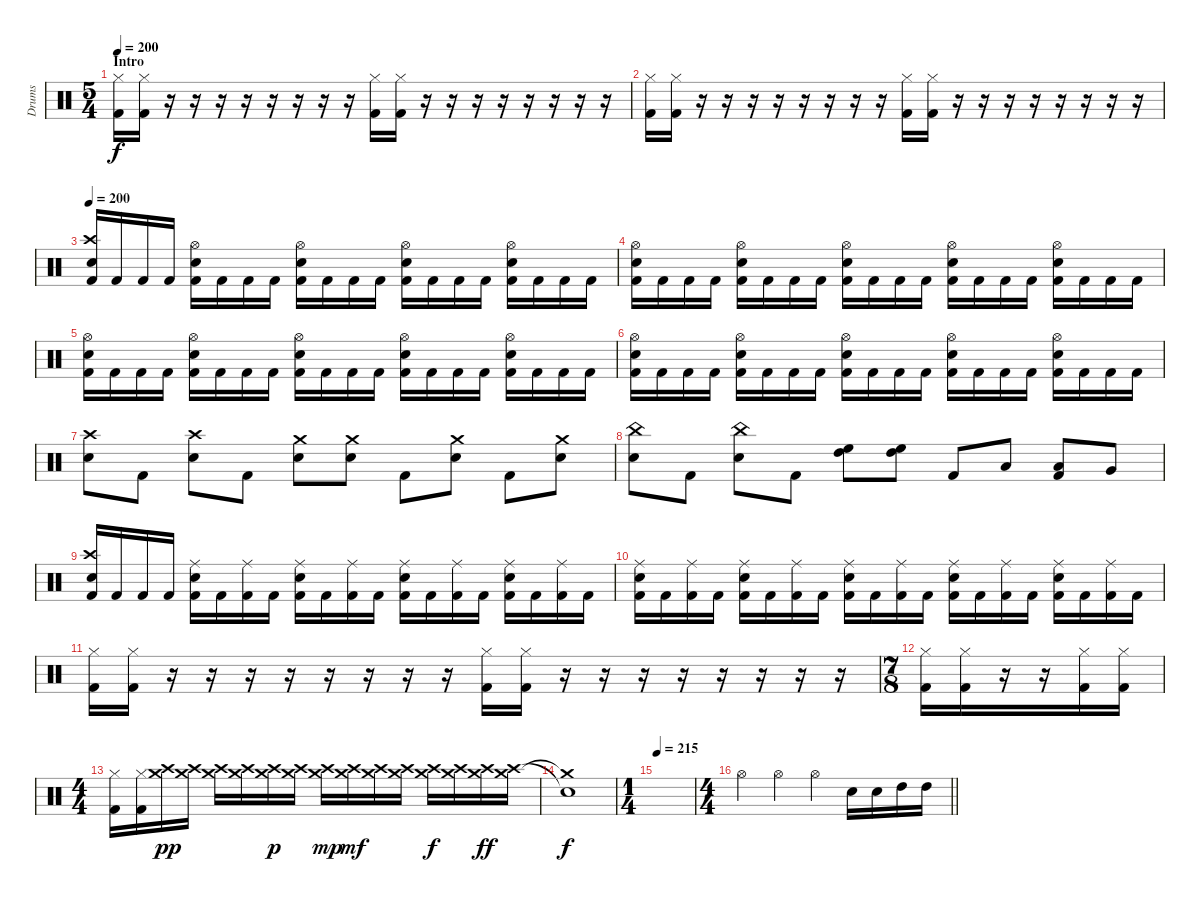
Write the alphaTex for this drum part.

\track ("Drums" "Drums") {instrument percussion}
\staff {score}
\articulation defaults
\ts (5 4)
\section ("" "Intro")
\tempo 200
\clef neutral
\ks c
("Hi-Hat (closed)" "Kick (hit) 2").16{dy f} ("Hi-Hat (closed)" "Kick (hit) 2").16 r.16 r.16 r.16 r.16 r.16 r.16 r.16 r.16 ("Hi-Hat (closed)" "Kick (hit) 2").16 ("Hi-Hat (closed)" "Kick (hit) 2").16 r.16 r.16 r.16 r.16 r.16 r.16 r.16 r.16 |
("Hi-Hat (closed)" "Kick (hit) 2").16 ("Hi-Hat (closed)" "Kick (hit) 2").16 r.16 r.16 r.16 r.16 r.16 r.16 r.16 r.16 ("Hi-Hat (closed)" "Kick (hit) 2").16 ("Hi-Hat (closed)" "Kick (hit) 2").16 r.16 r.16 r.16 r.16 r.16 r.16 r.16 r.16 |
\tempo 200
("Crash high (hit)" "Snare (hit) 2" "Kick (hit) 2").16 "Kick (hit) 2".16 "Kick (hit) 2".16 "Kick (hit) 2".16 ("Hi-Hat (open)" "Snare (hit) 2" "Kick (hit) 2").16 "Kick (hit) 2".16 "Kick (hit) 2".16 "Kick (hit) 2".16 ("Hi-Hat (open)" "Snare (hit) 2" "Kick (hit) 2").16 "Kick (hit) 2".16 "Kick (hit) 2".16 "Kick (hit) 2".16 ("Hi-Hat (open)" "Snare (hit) 2" "Kick (hit) 2").16 "Kick (hit) 2".16 "Kick (hit) 2".16 "Kick (hit) 2".16 ("Hi-Hat (open)" "Snare (hit) 2" "Kick (hit) 2").16 "Kick (hit) 2".16 "Kick (hit) 2".16 "Kick (hit) 2".16 |
("Hi-Hat (open)" "Snare (hit) 2" "Kick (hit) 2").16 "Kick (hit) 2".16 "Kick (hit) 2".16 "Kick (hit) 2".16 ("Hi-Hat (open)" "Snare (hit) 2" "Kick (hit) 2").16 "Kick (hit) 2".16 "Kick (hit) 2".16 "Kick (hit) 2".16 ("Hi-Hat (open)" "Snare (hit) 2" "Kick (hit) 2").16 "Kick (hit) 2".16 "Kick (hit) 2".16 "Kick (hit) 2".16 ("Hi-Hat (open)" "Snare (hit) 2" "Kick (hit) 2").16 "Kick (hit) 2".16 "Kick (hit) 2".16 "Kick (hit) 2".16 ("Hi-Hat (open)" "Snare (hit) 2" "Kick (hit) 2").16 "Kick (hit) 2".16 "Kick (hit) 2".16 "Kick (hit) 2".16 |
("Hi-Hat (open)" "Snare (hit) 2" "Kick (hit) 2").16 "Kick (hit) 2".16 "Kick (hit) 2".16 "Kick (hit) 2".16 ("Hi-Hat (open)" "Snare (hit) 2" "Kick (hit) 2").16 "Kick (hit) 2".16 "Kick (hit) 2".16 "Kick (hit) 2".16 ("Hi-Hat (open)" "Snare (hit) 2" "Kick (hit) 2").16 "Kick (hit) 2".16 "Kick (hit) 2".16 "Kick (hit) 2".16 ("Hi-Hat (open)" "Snare (hit) 2" "Kick (hit) 2").16 "Kick (hit) 2".16 "Kick (hit) 2".16 "Kick (hit) 2".16 ("Hi-Hat (open)" "Snare (hit) 2" "Kick (hit) 2").16 "Kick (hit) 2".16 "Kick (hit) 2".16 "Kick (hit) 2".16 |
("Hi-Hat (open)" "Snare (hit) 2" "Kick (hit) 2").16 "Kick (hit) 2".16 "Kick (hit) 2".16 "Kick (hit) 2".16 ("Hi-Hat (open)" "Snare (hit) 2" "Kick (hit) 2").16 "Kick (hit) 2".16 "Kick (hit) 2".16 "Kick (hit) 2".16 ("Hi-Hat (open)" "Snare (hit) 2" "Kick (hit) 2").16 "Kick (hit) 2".16 "Kick (hit) 2".16 "Kick (hit) 2".16 ("Hi-Hat (open)" "Snare (hit) 2" "Kick (hit) 2").16 "Kick (hit) 2".16 "Kick (hit) 2".16 "Kick (hit) 2".16 ("Hi-Hat (open)" "Snare (hit) 2" "Kick (hit) 2").16 "Kick (hit) 2".16 "Kick (hit) 2".16 "Kick (hit) 2".16 |
("Crash high (hit)" "Snare (hit) 2").8 "Kick (hit) 2".8 ("Crash high (hit)" "Snare (hit) 2").8 "Kick (hit) 2".8 ("Crash medium (hit)" "Snare (hit) 2").8 ("Crash medium (hit)" "Snare (hit) 2").8 "Kick (hit) 2".8 ("Crash medium (hit)" "Snare (hit) 2").8 "Kick (hit) 2".8 ("Crash medium (hit)" "Snare (hit) 2").8 |
("China (hit)" "Snare (hit) 2").8 "Kick (hit) 2".8 ("China (hit)" "Snare (hit) 2").8 "Kick (hit) 2".8 ("High Floor Tom (hit)" "High Tom (hit)").8 ("High Floor Tom (hit)" "High Tom (hit)").8 "Kick (hit) 2".8 "Low Tom (hit)".8 ("Low Tom (hit)" "Kick (hit) 2").8 "Very Low Tom (hit)".8 |
("Crash high (hit)" "Snare (hit) 2" "Kick (hit) 2").16 "Kick (hit) 2".16 "Kick (hit) 2".16 "Kick (hit) 2".16 ("Ride (middle)" "Snare (hit) 2" "Kick (hit) 2").16 "Kick (hit) 2".16 ("Ride (middle)" "Kick (hit) 2").16 "Kick (hit) 2".16 ("Ride (middle)" "Snare (hit) 2" "Kick (hit) 2").16 "Kick (hit) 2".16 ("Ride (middle)" "Kick (hit) 2").16 "Kick (hit) 2".16 ("Ride (middle)" "Snare (hit) 2" "Kick (hit) 2").16 "Kick (hit) 2".16 ("Ride (middle)" "Kick (hit) 2").16 "Kick (hit) 2".16 ("Ride (middle)" "Snare (hit) 2" "Kick (hit) 2").16 "Kick (hit) 2".16 ("Ride (middle)" "Kick (hit) 2").16 "Kick (hit) 2".16 |
("Ride (middle)" "Snare (hit) 2" "Kick (hit) 2").16 "Kick (hit) 2".16 ("Ride (middle)" "Kick (hit) 2").16 "Kick (hit) 2".16 ("Ride (middle)" "Snare (hit) 2" "Kick (hit) 2").16 "Kick (hit) 2".16 ("Ride (middle)" "Kick (hit) 2").16 "Kick (hit) 2".16 ("Ride (middle)" "Snare (hit) 2" "Kick (hit) 2").16 "Kick (hit) 2".16 ("Ride (middle)" "Kick (hit) 2").16 "Kick (hit) 2".16 ("Ride (middle)" "Snare (hit) 2" "Kick (hit) 2").16 "Kick (hit) 2".16 ("Ride (middle)" "Kick (hit) 2").16 "Kick (hit) 2".16 ("Ride (middle)" "Snare (hit) 2" "Kick (hit) 2").16 "Kick (hit) 2".16 ("Ride (middle)" "Kick (hit) 2").16 "Kick (hit) 2".16 |
("Hi-Hat (closed)" "Kick (hit) 2").16 ("Hi-Hat (closed)" "Kick (hit) 2").16 r.16 r.16 r.16 r.16 r.16 r.16 r.16 r.16 ("Hi-Hat (closed)" "Kick (hit) 2").16 ("Hi-Hat (closed)" "Kick (hit) 2").16 r.16 r.16 r.16 r.16 r.16 r.16 r.16 r.16 |
\ts (7 8)
("Hi-Hat (closed)" "Kick (hit) 2").16 ("Hi-Hat (closed)" "Kick (hit) 2").16 r.16 r.16 ("Hi-Hat (closed)" "Kick (hit) 2").16 ("Hi-Hat (closed)" "Kick (hit) 2").16 |
\ts (4 4)
("Hi-Hat (closed)" "Kick (hit) 2").16 ("Hi-Hat (closed)" "Kick (hit) 2").16 ("Crash medium (hit)" "Crash high (hit)").16{dy pp} ("Crash medium (hit)" "Crash high (hit)").16 ("Crash medium (hit)" "Crash high (hit)").16 ("Crash medium (hit)" "Crash high (hit)").16 ("Crash medium (hit)" "Crash high (hit)").16{dy p} ("Crash medium (hit)" "Crash high (hit)").16 ("Crash medium (hit)" "Crash high (hit)").16{dy mp} ("Crash medium (hit)" "Crash high (hit)").16{dy mf} ("Crash medium (hit)" "Crash high (hit)").16 ("Crash medium (hit)" "Crash high (hit)").16 ("Crash medium (hit)" "Crash high (hit)").16{dy f} ("Crash medium (hit)" "Crash high (hit)").16 ("Crash medium (hit)" "Crash high (hit)").16{dy ff} ("Crash medium (hit)" "Crash high (hit)").16 |
("Crash medium (hit)"{t} "Snare (hit)"{t}).1{dy f} |
\ts (1 4)
\tempo 215
|
\ts (4 4)
\barLineRight lightlight "Hi-Hat (open)".4 "Hi-Hat (open)".4 "Hi-Hat (open)".4 "Snare (hit) 2".16 "Snare (hit) 2".16 "High Tom (hit)".16 "High Tom (hit)".16
